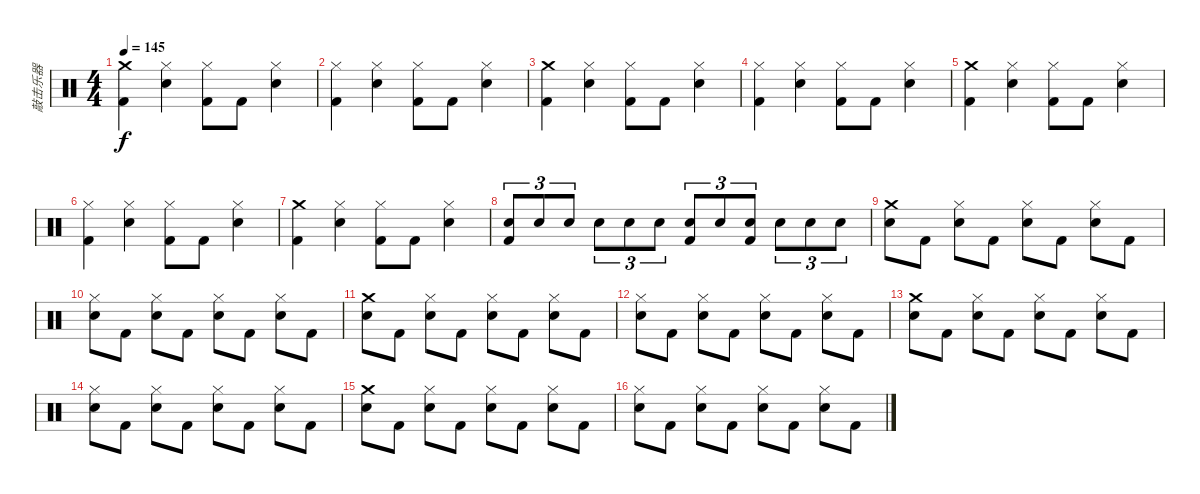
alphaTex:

\track ("敲击乐器" "敲击乐器") {instrument percussion}
\staff {score}
\articulation defaults
\ts (4 4)
\tempo 145
\clef neutral
\ks c
("Crash medium (hit)" "Kick (hit) 2").4{dy f} ("Hi-Hat (closed)" "Electric Snare (hit)").4 ("Hi-Hat (closed)" "Kick (hit) 2").8 "Kick (hit) 2".8 ("Hi-Hat (closed)" "Electric Snare (hit)").4 |
("Hi-Hat (closed)" "Kick (hit) 2").4 ("Hi-Hat (closed)" "Electric Snare (hit)").4 ("Hi-Hat (closed)" "Kick (hit) 2").8 "Kick (hit) 2".8 ("Hi-Hat (closed)" "Electric Snare (hit)").4 |
("Crash medium (hit)" "Kick (hit) 2").4 ("Hi-Hat (closed)" "Electric Snare (hit)").4 ("Hi-Hat (closed)" "Kick (hit) 2").8 "Kick (hit) 2".8 ("Hi-Hat (closed)" "Electric Snare (hit)").4 |
("Hi-Hat (closed)" "Kick (hit) 2").4 ("Hi-Hat (closed)" "Electric Snare (hit)").4 ("Hi-Hat (closed)" "Kick (hit) 2").8 "Kick (hit) 2".8 ("Hi-Hat (closed)" "Electric Snare (hit)").4 |
("Crash medium (hit)" "Kick (hit) 2").4 ("Hi-Hat (closed)" "Electric Snare (hit)").4 ("Hi-Hat (closed)" "Kick (hit) 2").8 "Kick (hit) 2".8 ("Hi-Hat (closed)" "Electric Snare (hit)").4 |
("Hi-Hat (closed)" "Kick (hit) 2").4 ("Hi-Hat (closed)" "Electric Snare (hit)").4 ("Hi-Hat (closed)" "Kick (hit) 2").8 "Kick (hit) 2".8 ("Hi-Hat (closed)" "Electric Snare (hit)").4 |
("Crash medium (hit)" "Kick (hit) 2").4 ("Hi-Hat (closed)" "Electric Snare (hit)").4 ("Hi-Hat (closed)" "Kick (hit) 2").8 "Kick (hit) 2".8 ("Hi-Hat (closed)" "Electric Snare (hit)").4 |
("Electric Snare (hit)" "Kick (hit) 2").8{tu (3 2)} "Electric Snare (hit)".8{tu (3 2)} "Electric Snare (hit)".8{tu (3 2)} "Electric Snare (hit)".8{tu (3 2)} "Electric Snare (hit)".8{tu (3 2)} "Electric Snare (hit)".8{tu (3 2)} ("Electric Snare (hit)" "Kick (hit) 2").8{tu (3 2)} "Electric Snare (hit)".8{tu (3 2)} ("Electric Snare (hit)" "Kick (hit) 2").8{tu (3 2)} "Electric Snare (hit)".8{tu (3 2)} "Electric Snare (hit)".8{tu (3 2)} "Electric Snare (hit)".8{tu (3 2)} |
("Crash medium (hit)" "Electric Snare (hit)").8 "Kick (hit) 2".8 ("Hi-Hat (closed)" "Electric Snare (hit)").8 "Kick (hit) 2".8 ("Hi-Hat (closed)" "Electric Snare (hit)").8 "Kick (hit) 2".8 ("Hi-Hat (closed)" "Electric Snare (hit)").8 "Kick (hit) 2".8 |
("Hi-Hat (closed)" "Electric Snare (hit)").8 "Kick (hit) 2".8 ("Hi-Hat (closed)" "Electric Snare (hit)").8 "Kick (hit) 2".8 ("Hi-Hat (closed)" "Electric Snare (hit)").8 "Kick (hit) 2".8 ("Hi-Hat (closed)" "Electric Snare (hit)").8 "Kick (hit) 2".8 |
("Crash medium (hit)" "Electric Snare (hit)").8 "Kick (hit) 2".8 ("Hi-Hat (closed)" "Electric Snare (hit)").8 "Kick (hit) 2".8 ("Hi-Hat (closed)" "Electric Snare (hit)").8 "Kick (hit) 2".8 ("Hi-Hat (closed)" "Electric Snare (hit)").8 "Kick (hit) 2".8 |
("Hi-Hat (closed)" "Electric Snare (hit)").8 "Kick (hit) 2".8 ("Hi-Hat (closed)" "Electric Snare (hit)").8 "Kick (hit) 2".8 ("Hi-Hat (closed)" "Electric Snare (hit)").8 "Kick (hit) 2".8 ("Hi-Hat (closed)" "Electric Snare (hit)").8 "Kick (hit) 2".8 |
("Crash medium (hit)" "Electric Snare (hit)").8 "Kick (hit) 2".8 ("Hi-Hat (closed)" "Electric Snare (hit)").8 "Kick (hit) 2".8 ("Hi-Hat (closed)" "Electric Snare (hit)").8 "Kick (hit) 2".8 ("Hi-Hat (closed)" "Electric Snare (hit)").8 "Kick (hit) 2".8 |
("Hi-Hat (closed)" "Electric Snare (hit)").8 "Kick (hit) 2".8 ("Hi-Hat (closed)" "Electric Snare (hit)").8 "Kick (hit) 2".8 ("Hi-Hat (closed)" "Electric Snare (hit)").8 "Kick (hit) 2".8 ("Hi-Hat (closed)" "Electric Snare (hit)").8 "Kick (hit) 2".8 |
("Crash medium (hit)" "Electric Snare (hit)").8 "Kick (hit) 2".8 ("Hi-Hat (closed)" "Electric Snare (hit)").8 "Kick (hit) 2".8 ("Hi-Hat (closed)" "Electric Snare (hit)").8 "Kick (hit) 2".8 ("Hi-Hat (closed)" "Electric Snare (hit)").8 "Kick (hit) 2".8 |
("Hi-Hat (closed)" "Electric Snare (hit)").8 "Kick (hit) 2".8 ("Hi-Hat (closed)" "Electric Snare (hit)").8 "Kick (hit) 2".8 ("Hi-Hat (closed)" "Electric Snare (hit)").8 "Kick (hit) 2".8 ("Hi-Hat (closed)" "Electric Snare (hit)").8 "Kick (hit) 2".8
